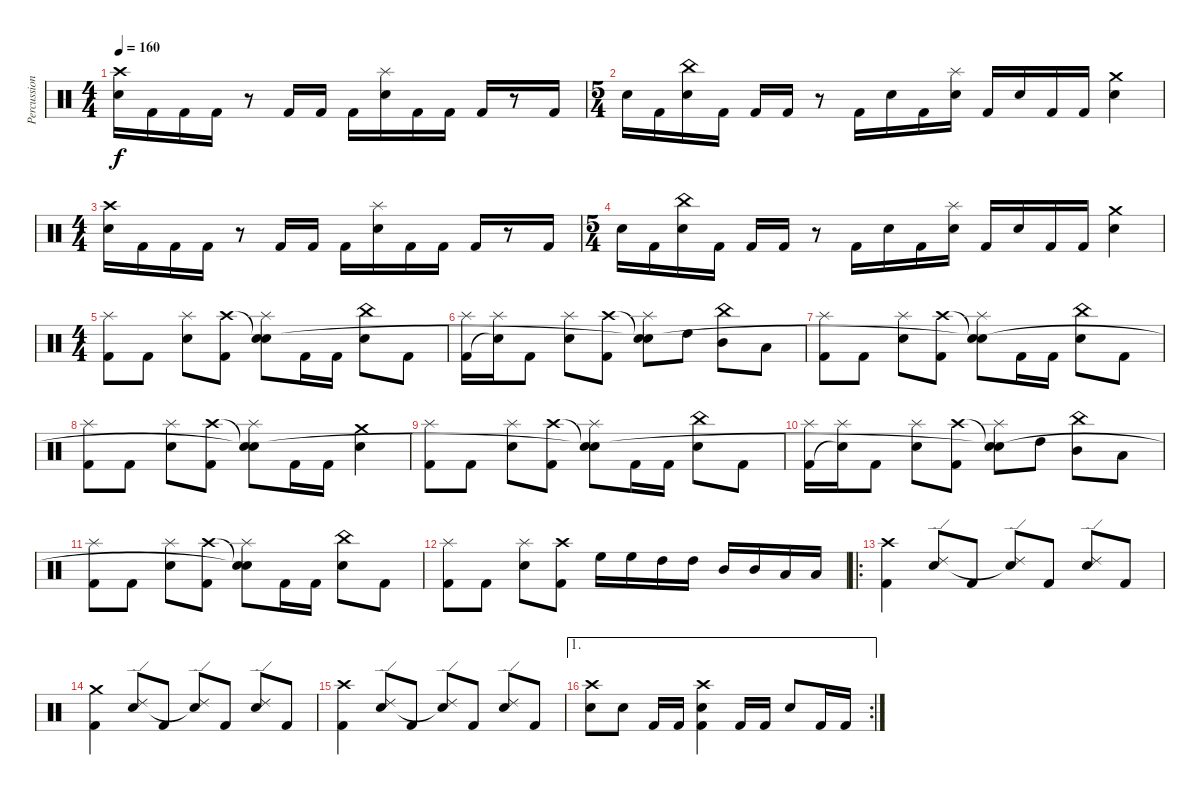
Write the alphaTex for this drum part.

\track ("Percussion" "Percussion") {instrument percussion}
\staff {score}
\articulation defaults
\ts (4 4)
\tempo 160
\clef neutral
\ks c
("Crash high (hit)" "Snare (hit) 2").16{dy f} "Kick (hit) 2".16 "Kick (hit) 2".16 "Kick (hit) 2".16 r.8 "Kick (hit) 2".16 "Kick (hit) 2".16 "Kick (hit) 2".16 ("Splash (hit)" "Snare (hit) 2").16 "Kick (hit) 2".16 "Kick (hit) 2".16 "Kick (hit) 2".16 r.8 "Kick (hit) 2".16 |
\ts (5 4)
"Snare (hit) 2".16 "Kick (hit) 2".16 ("China (hit)" "Snare (hit) 2").16 "Kick (hit) 2".16 "Kick (hit) 2".16 "Kick (hit) 2".16 r.8 "Kick (hit) 2".16 "Snare (hit) 2".16 "Kick (hit) 2".16 ("Splash (hit)" "Snare (hit) 2").16 "Kick (hit) 2".16 "Snare (hit) 2".16 "Kick (hit) 2".16 "Kick (hit) 2".16 ("Crash medium (hit)" "Snare (hit) 2").4 |
\ts (4 4)
("Crash high (hit)" "Snare (hit) 2").16 "Kick (hit) 2".16 "Kick (hit) 2".16 "Kick (hit) 2".16 r.8 "Kick (hit) 2".16 "Kick (hit) 2".16 "Kick (hit) 2".16 ("Splash (hit)" "Snare (hit) 2").16 "Kick (hit) 2".16 "Kick (hit) 2".16 "Kick (hit) 2".16 r.8 "Kick (hit) 2".16 |
\ts (5 4)
"Snare (hit) 2".16 "Kick (hit) 2".16 ("China (hit)" "Snare (hit) 2").16 "Kick (hit) 2".16 "Kick (hit) 2".16 "Kick (hit) 2".16 r.8 "Kick (hit) 2".16 "Snare (hit) 2".16 "Kick (hit) 2".16 ("Splash (hit)" "Snare (hit) 2").16 "Kick (hit) 2".16 "Snare (hit) 2".16 "Kick (hit) 2".16 "Kick (hit) 2".16 ("Crash medium (hit)" "Snare (hit) 2").4 |
\ts (4 4)
("Splash (hit)" "Kick (hit) 2").8 "Kick (hit) 2".8 ("Splash (hit)" "Snare (hit) 2").8 ("Crash high (hit)" "Kick (hit) 2").8 ("Snare (hit)"{t} "Splash (hit)" "Snare (hit)").8 "Kick (hit) 2".16 "Kick (hit) 2".16 ("China (hit)" "Snare (hit) 2").8 "Kick (hit) 2".8 |
("Splash (hit)" "Kick (hit) 2").16 ("Splash (hit)" "Snare (hit)"{t}).16 "Kick (hit) 2".8 ("Splash (hit)" "Snare (hit) 2").8 ("Crash high (hit)" "Kick (hit) 2").8 ("Snare (hit)"{t} "Splash (hit)" "Snare (hit)"{t}).8 "High Tom (hit)".8 ("China (hit)" "Mid Tom (hit)").8 "Low Tom (hit)".8 |
("Splash (hit)" "Kick (hit) 2").8 "Kick (hit) 2".8 ("Splash (hit)" "Snare (hit) 2").8 ("Crash high (hit)" "Kick (hit) 2").8 ("Snare (hit)"{t} "Splash (hit)" "Snare (hit)"{t}).8 "Kick (hit) 2".16 "Kick (hit) 2".16 ("China (hit)" "Snare (hit) 2").8 "Kick (hit) 2".8 |
("Splash (hit)" "Kick (hit) 2").8 "Kick (hit) 2".8 ("Splash (hit)" "Snare (hit) 2").8 ("Crash high (hit)" "Kick (hit) 2").8 ("Snare (hit)"{t} "Splash (hit)" "Snare (hit)"{t}).8 "Kick (hit) 2".16 "Kick (hit) 2".16 ("Crash medium (hit)" "Snare (hit) 2").4 |
("Splash (hit)" "Kick (hit) 2").8 "Kick (hit) 2".8 ("Splash (hit)" "Snare (hit) 2").8 ("Crash high (hit)" "Kick (hit) 2").8 ("Snare (hit)"{t} "Splash (hit)" "Snare (hit)"{t}).8 "Kick (hit) 2".16 "Kick (hit) 2".16 ("China (hit)" "Snare (hit) 2").8 "Kick (hit) 2".8 |
("Splash (hit)" "Kick (hit) 2").16 ("Splash (hit)" "Snare (hit)"{t}).16 "Kick (hit) 2".8 ("Splash (hit)" "Snare (hit) 2").8 ("Crash high (hit)" "Kick (hit) 2").8 ("Snare (hit)"{t} "Splash (hit)" "Snare (hit)"{t}).8 "High Tom (hit)".8 ("China (hit)" "Mid Tom (hit)").8 "Low Tom (hit)".8 |
("Splash (hit)" "Kick (hit) 2").8 "Kick (hit) 2".8 ("Splash (hit)" "Snare (hit) 2").8 ("Crash high (hit)" "Kick (hit) 2").8 ("Snare (hit)"{t} "Splash (hit)" "Snare (hit)"{t}).8 "Kick (hit) 2".16 "Kick (hit) 2".16 ("China (hit)" "Snare (hit) 2").8 "Kick (hit) 2".8 |
("Splash (hit)" "Kick (hit) 2").8 "Kick (hit) 2".8 ("Splash (hit)" "Snare (hit) 2").8 ("Crash high (hit)" "Kick (hit) 2").8 "High Floor Tom (hit)".16 "High Floor Tom (hit)".16 "High Tom (hit)".16 "High Tom (hit)".16 "Mid Tom (hit)".16 "Mid Tom (hit)".16 "Low Tom (hit)".16 "Low Tom (hit)".16 |
\ro
("Crash high (hit)" "Kick (hit) 2").4 ("Ride (edge) 2" "Snare (hit) 2").8 "Kick (hit) 2".8 ("Ride (edge) 2" "Snare (hit)"{t}).8 "Kick (hit) 2".8 ("Ride (edge) 2" "Snare (hit) 2").8 "Kick (hit) 2".8 |
("Crash medium (hit)" "Kick (hit) 2").4 ("Ride (edge) 2" "Snare (hit) 2").8 "Kick (hit) 2".8 ("Ride (edge) 2" "Snare (hit)"{t}).8 "Kick (hit) 2".8 ("Ride (edge) 2" "Snare (hit) 2").8 "Kick (hit) 2".8 |
("Crash high (hit)" "Kick (hit) 2").4 ("Ride (edge) 2" "Snare (hit) 2").8 "Kick (hit) 2".8 ("Ride (edge) 2" "Snare (hit)"{t}).8 "Kick (hit) 2".8 ("Ride (edge) 2" "Snare (hit) 2").8 "Kick (hit) 2".8 |
\ae 1
\rc 2
("Crash high (hit)" "Snare (hit) 2").8 "Snare (hit) 2".8 "Kick (hit) 2".16 "Kick (hit) 2".16 ("Crash high (hit)" "Snare (hit) 2" "Kick (hit) 2").4 "Kick (hit) 2".16 "Kick (hit) 2".16 "Snare (hit) 2".8 "Kick (hit) 2".16 "Kick (hit) 2".16
